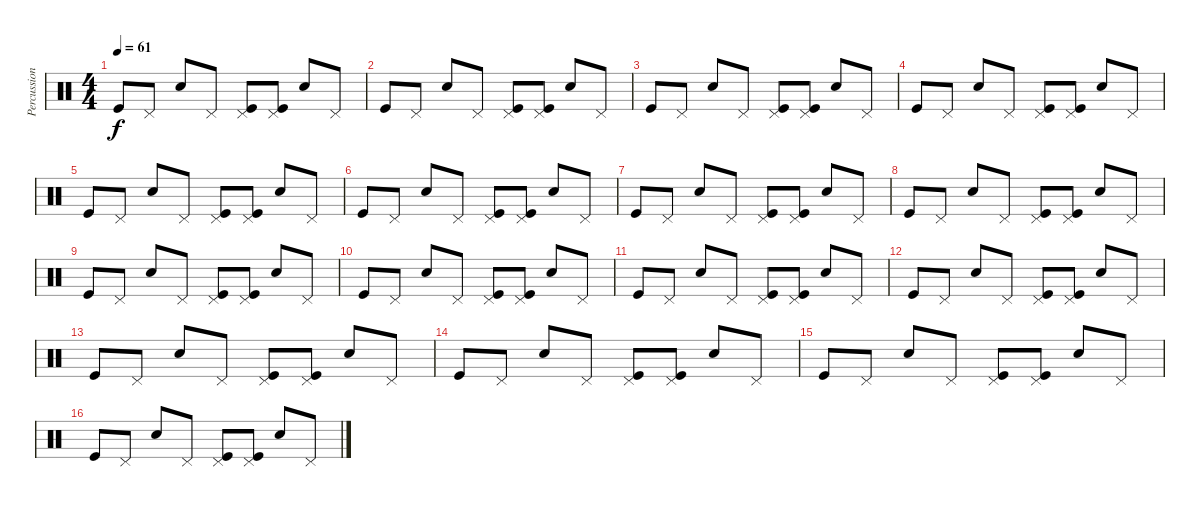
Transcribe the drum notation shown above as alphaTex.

\track ("Percussion" "Percussion") {instrument percussion}
\staff {score}
\articulation defaults
\ts (4 4)
\tempo 61
\clef neutral
\ks c "Kick (hit)".8{dy f} "Pedal Hi-Hat (hit)".8 "Snare (hit) 2".8 "Pedal Hi-Hat (hit)".8
("Pedal Hi-Hat (hit)" "Kick (hit)").8 ("Pedal Hi-Hat (hit)" "Kick (hit)").8 "Snare (hit) 2".8 "Pedal Hi-Hat (hit)".8 |
"Kick (hit)".8 "Pedal Hi-Hat (hit)".8 "Snare (hit) 2".8 "Pedal Hi-Hat (hit)".8 ("Pedal Hi-Hat (hit)" "Kick (hit)").8 ("Pedal Hi-Hat (hit)" "Kick (hit)").8 "Snare (hit) 2".8 "Pedal Hi-Hat (hit)".8 |
"Kick (hit)".8 "Pedal Hi-Hat (hit)".8 "Snare (hit) 2".8 "Pedal Hi-Hat (hit)".8 ("Pedal Hi-Hat (hit)" "Kick (hit)").8 ("Pedal Hi-Hat (hit)" "Kick (hit)").8 "Snare (hit) 2".8 "Pedal Hi-Hat (hit)".8 |
"Kick (hit)".8 "Pedal Hi-Hat (hit)".8 "Snare (hit) 2".8 "Pedal Hi-Hat (hit)".8 ("Pedal Hi-Hat (hit)" "Kick (hit)").8 ("Pedal Hi-Hat (hit)" "Kick (hit)").8 "Snare (hit) 2".8 "Pedal Hi-Hat (hit)".8 |
"Kick (hit)".8 "Pedal Hi-Hat (hit)".8 "Snare (hit) 2".8 "Pedal Hi-Hat (hit)".8 ("Pedal Hi-Hat (hit)" "Kick (hit)").8 ("Pedal Hi-Hat (hit)" "Kick (hit)").8 "Snare (hit) 2".8 "Pedal Hi-Hat (hit)".8 |
"Kick (hit)".8 "Pedal Hi-Hat (hit)".8 "Snare (hit) 2".8 "Pedal Hi-Hat (hit)".8 ("Pedal Hi-Hat (hit)" "Kick (hit)").8 ("Pedal Hi-Hat (hit)" "Kick (hit)").8 "Snare (hit) 2".8 "Pedal Hi-Hat (hit)".8 |
"Kick (hit)".8 "Pedal Hi-Hat (hit)".8 "Snare (hit) 2".8 "Pedal Hi-Hat (hit)".8 ("Pedal Hi-Hat (hit)" "Kick (hit)").8 ("Pedal Hi-Hat (hit)" "Kick (hit)").8 "Snare (hit) 2".8 "Pedal Hi-Hat (hit)".8 |
"Kick (hit)".8 "Pedal Hi-Hat (hit)".8 "Snare (hit) 2".8 "Pedal Hi-Hat (hit)".8 ("Pedal Hi-Hat (hit)" "Kick (hit)").8 ("Pedal Hi-Hat (hit)" "Kick (hit)").8 "Snare (hit) 2".8 "Pedal Hi-Hat (hit)".8 |
"Kick (hit)".8 "Pedal Hi-Hat (hit)".8 "Snare (hit) 2".8 "Pedal Hi-Hat (hit)".8 ("Pedal Hi-Hat (hit)" "Kick (hit)").8 ("Pedal Hi-Hat (hit)" "Kick (hit)").8 "Snare (hit) 2".8 "Pedal Hi-Hat (hit)".8 |
"Kick (hit)".8 "Pedal Hi-Hat (hit)".8 "Snare (hit) 2".8 "Pedal Hi-Hat (hit)".8 ("Pedal Hi-Hat (hit)" "Kick (hit)").8 ("Pedal Hi-Hat (hit)" "Kick (hit)").8 "Snare (hit) 2".8 "Pedal Hi-Hat (hit)".8 |
"Kick (hit)".8 "Pedal Hi-Hat (hit)".8 "Snare (hit) 2".8 "Pedal Hi-Hat (hit)".8 ("Pedal Hi-Hat (hit)" "Kick (hit)").8 ("Pedal Hi-Hat (hit)" "Kick (hit)").8 "Snare (hit) 2".8 "Pedal Hi-Hat (hit)".8 |
"Kick (hit)".8 "Pedal Hi-Hat (hit)".8 "Snare (hit) 2".8 "Pedal Hi-Hat (hit)".8 ("Pedal Hi-Hat (hit)" "Kick (hit)").8 ("Pedal Hi-Hat (hit)" "Kick (hit)").8 "Snare (hit) 2".8 "Pedal Hi-Hat (hit)".8 |
"Kick (hit)".8 "Pedal Hi-Hat (hit)".8 "Snare (hit) 2".8 "Pedal Hi-Hat (hit)".8 ("Pedal Hi-Hat (hit)" "Kick (hit)").8 ("Pedal Hi-Hat (hit)" "Kick (hit)").8 "Snare (hit) 2".8 "Pedal Hi-Hat (hit)".8 |
"Kick (hit)".8 "Pedal Hi-Hat (hit)".8 "Snare (hit) 2".8 "Pedal Hi-Hat (hit)".8 ("Pedal Hi-Hat (hit)" "Kick (hit)").8 ("Pedal Hi-Hat (hit)" "Kick (hit)").8 "Snare (hit) 2".8 "Pedal Hi-Hat (hit)".8 |
"Kick (hit)".8 "Pedal Hi-Hat (hit)".8 "Snare (hit) 2".8 "Pedal Hi-Hat (hit)".8 ("Pedal Hi-Hat (hit)" "Kick (hit)").8 ("Pedal Hi-Hat (hit)" "Kick (hit)").8 "Snare (hit) 2".8 "Pedal Hi-Hat (hit)".8 |
"Kick (hit)".8 "Pedal Hi-Hat (hit)".8 "Snare (hit) 2".8 "Pedal Hi-Hat (hit)".8 ("Pedal Hi-Hat (hit)" "Kick (hit)").8 ("Pedal Hi-Hat (hit)" "Kick (hit)").8 "Snare (hit) 2".8 "Pedal Hi-Hat (hit)".8
